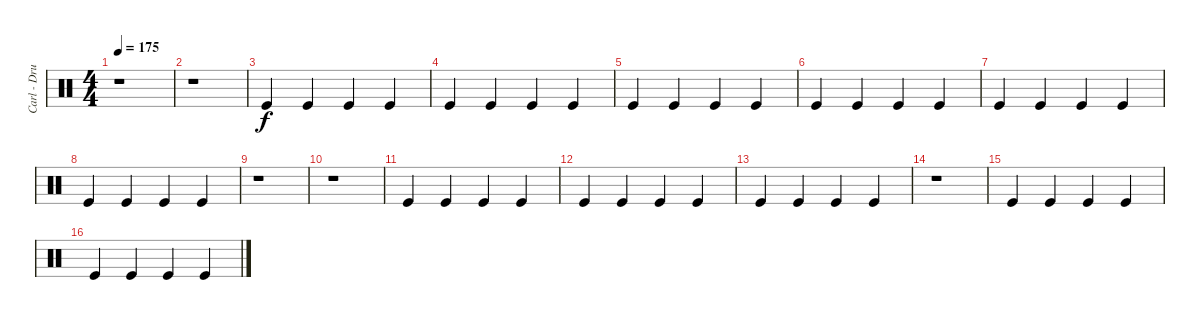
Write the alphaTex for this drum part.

\track ("Carl - Drums I" "Carl - Dru") {instrument percussion}
\staff {score}
\articulation defaults
\ts (4 4)
\tempo 175
\clef neutral
\ks c
r.1{dy f} |
r.1 |
"Kick (hit)".4 "Kick (hit)".4 "Kick (hit)".4 "Kick (hit)".4 |
"Kick (hit)".4 "Kick (hit)".4 "Kick (hit)".4 "Kick (hit)".4 |
"Kick (hit)".4 "Kick (hit)".4 "Kick (hit)".4 "Kick (hit)".4 |
"Kick (hit)".4 "Kick (hit)".4 "Kick (hit)".4 "Kick (hit)".4 |
"Kick (hit)".4 "Kick (hit)".4 "Kick (hit)".4 "Kick (hit)".4 |
"Kick (hit)".4 "Kick (hit)".4 "Kick (hit)".4 "Kick (hit)".4 |
r.1 |
r.1 |
"Kick (hit)".4 "Kick (hit)".4 "Kick (hit)".4 "Kick (hit)".4 |
"Kick (hit)".4 "Kick (hit)".4 "Kick (hit)".4 "Kick (hit)".4 |
"Kick (hit)".4 "Kick (hit)".4 "Kick (hit)".4 "Kick (hit)".4 |
r.1 |
"Kick (hit)".4 "Kick (hit)".4 "Kick (hit)".4 "Kick (hit)".4 |
"Kick (hit)".4 "Kick (hit)".4 "Kick (hit)".4 "Kick (hit)".4
